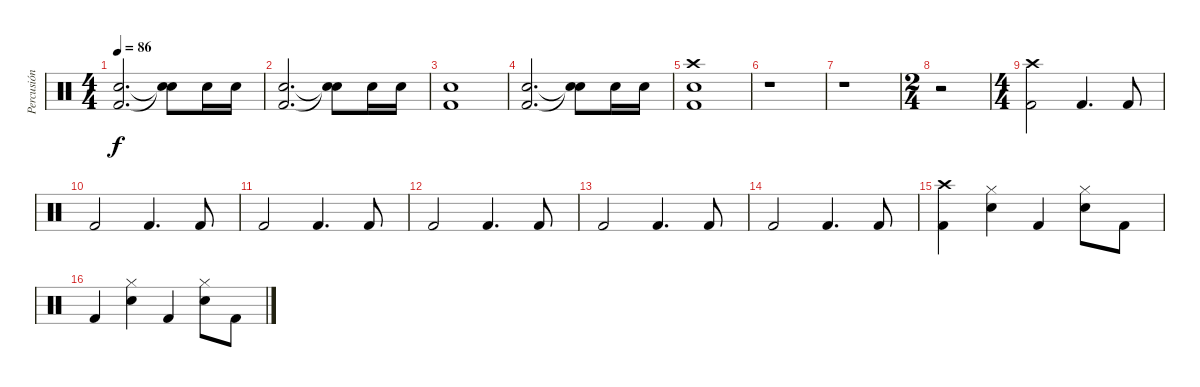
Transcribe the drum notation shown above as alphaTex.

\track ("Percusión" "Percusión") {instrument percussion}
\staff {score}
\articulation defaults
\ts (4 4)
\tempo 86
\clef neutral
\ks c
("Electric Snare (hit)" "Kick (hit) 2").2{d dy f} ("Snare (hit)"{t} "Snare (hit)"{t}).8 "Electric Snare (hit)".16 "Electric Snare (hit)".16 |
("Electric Snare (hit)" "Kick (hit) 2").2{d} ("Snare (hit)"{t} "Snare (hit)"{t}).8 "Electric Snare (hit)".16 "Electric Snare (hit)".16 |
("Electric Snare (hit)" "Kick (hit) 2").1 |
("Electric Snare (hit)" "Kick (hit) 2").2{d} ("Snare (hit)"{t} "Snare (hit)"{t}).8 "Electric Snare (hit)".16 "Electric Snare (hit)".16 |
("Crash high (hit)" "Electric Snare (hit)" "Kick (hit) 2").1 |
r.1 |
r.1 |
\ts (2 4)
r.2 |
\ts (4 4)
("Crash high (hit)" "Kick (hit) 2").2 "Kick (hit) 2".4{d} "Kick (hit) 2".8 |
"Kick (hit) 2".2 "Kick (hit) 2".4{d} "Kick (hit) 2".8 |
"Kick (hit) 2".2 "Kick (hit) 2".4{d} "Kick (hit) 2".8 |
"Kick (hit) 2".2 "Kick (hit) 2".4{d} "Kick (hit) 2".8 |
"Kick (hit) 2".2 "Kick (hit) 2".4{d} "Kick (hit) 2".8 |
"Kick (hit) 2".2 "Kick (hit) 2".4{d} "Kick (hit) 2".8 |
("Crash high (hit)" "Kick (hit) 2").4 ("Hi-Hat (closed)" "Electric Snare (hit)").4 "Kick (hit) 2".4 ("Hi-Hat (closed)" "Electric Snare (hit)").8 "Kick (hit) 2".8 |
"Kick (hit) 2".4 ("Hi-Hat (closed)" "Electric Snare (hit)").4 "Kick (hit) 2".4 ("Hi-Hat (closed)" "Electric Snare (hit)").8 "Kick (hit) 2".8
